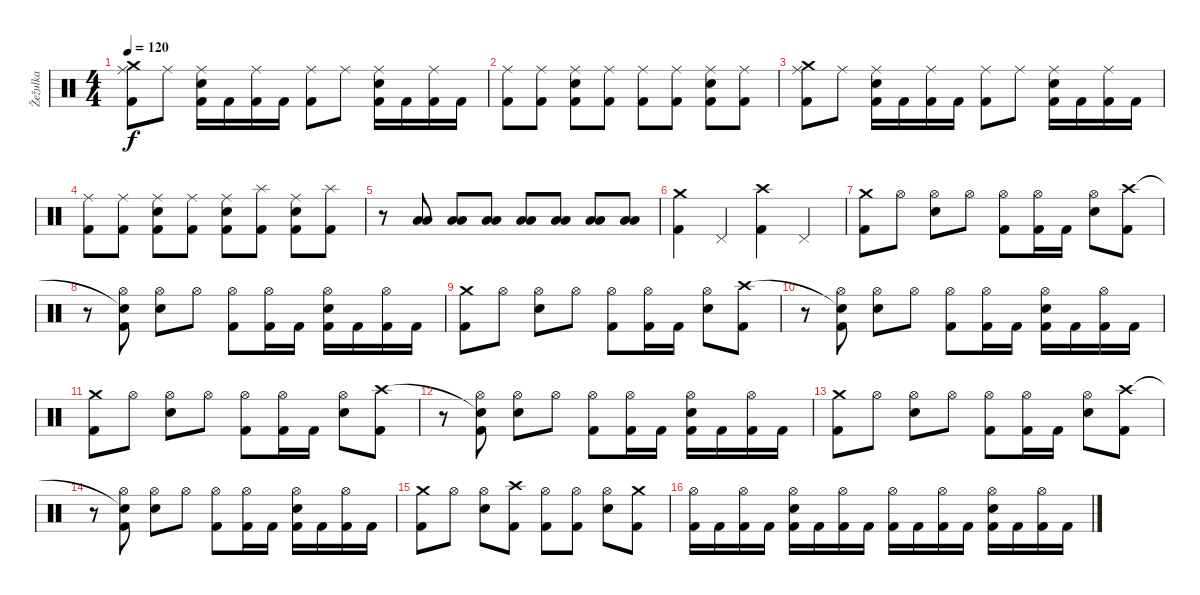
\track ("Žežulka" "Žežulka") {instrument percussion}
\staff {score}
\articulation defaults
\ts (4 4)
\tempo 120
\clef neutral
\ks c
("Crash medium (hit)" "Ride (middle)" "Kick (hit) 2").8{dy f} "Ride (middle)".8 ("Ride (middle)" "Snare (hit) 2" "Kick (hit) 2").16 "Kick (hit) 2".16 ("Ride (middle)" "Kick (hit) 2").16 "Kick (hit) 2".16 ("Ride (middle)" "Kick (hit) 2").8 "Ride (middle)".8 ("Ride (middle)" "Snare (hit) 2" "Kick (hit) 2").16 "Kick (hit) 2".16 ("Ride (middle)" "Kick (hit) 2").16 "Kick (hit) 2".16 |
("Ride (middle)" "Kick (hit) 2").8 ("Ride (middle)" "Kick (hit) 2").8 ("Ride (middle)" "Snare (hit) 2" "Kick (hit) 2").8 ("Ride (middle)" "Kick (hit) 2").8 ("Ride (middle)" "Kick (hit) 2").8 ("Ride (middle)" "Kick (hit) 2").8 ("Ride (middle)" "Snare (hit) 2" "Kick (hit) 2").8 ("Ride (middle)" "Kick (hit) 2").8 |
("Crash medium (hit)" "Ride (middle)" "Kick (hit) 2").8 "Ride (middle)".8 ("Ride (middle)" "Snare (hit) 2" "Kick (hit) 2").16 "Kick (hit) 2".16 ("Ride (middle)" "Kick (hit) 2").16 "Kick (hit) 2".16 ("Ride (middle)" "Kick (hit) 2").8 "Ride (middle)".8 ("Ride (middle)" "Snare (hit) 2" "Kick (hit) 2").16 "Kick (hit) 2".16 ("Ride (middle)" "Kick (hit) 2").16 "Kick (hit) 2".16 |
("Ride (middle)" "Kick (hit) 2").8 ("Ride (middle)" "Kick (hit) 2").8 ("Ride (middle)" "Snare (hit) 2" "Kick (hit) 2").8 ("Ride (middle)" "Kick (hit) 2").8 ("Ride (middle)" "Snare (hit) 2" "Kick (hit) 2").8 ("Splash (hit)" "Kick (hit) 2").8 ("Ride (middle)" "Snare (hit) 2" "Kick (hit) 2").8 ("Splash (hit)" "Kick (hit) 2").8 |
r.8 ("Low Tom (hit)" "Low Floor Tom (hit)").8 ("Low Tom (hit)" "Low Floor Tom (hit)").8 ("Low Tom (hit)" "Low Floor Tom (hit)").8 ("Low Tom (hit)" "Low Floor Tom (hit)").8 ("Low Tom (hit)" "Low Floor Tom (hit)").8 ("Low Tom (hit)" "Low Floor Tom (hit)").8 ("Low Tom (hit)" "Low Floor Tom (hit)").8 |
("Crash medium (hit)" "Kick (hit) 2").4 "Pedal Hi-Hat (hit)".4 ("Crash high (hit)" "Kick (hit) 2").4 "Pedal Hi-Hat (hit)".4 |
("Crash medium (hit)" "Kick (hit) 2").8 "Hi-Hat (open)".8 ("Hi-Hat (open)" "Snare (hit) 2").8 "Hi-Hat (open)".8 ("Hi-Hat (open)" "Kick (hit) 2").8 ("Hi-Hat (open)" "Kick (hit) 2").16 "Kick (hit) 2".16 ("Hi-Hat (open)" "Snare (hit) 2").8 ("Crash high (hit)" "Kick (hit) 2").8 |
r.8 ("Snare (hit)"{t} "Hi-Hat (open)" "Kick (hit) 2").8 ("Hi-Hat (open)" "Snare (hit) 2").8 "Hi-Hat (open)".8 ("Hi-Hat (open)" "Kick (hit) 2").8 ("Hi-Hat (open)" "Kick (hit) 2").16 "Kick (hit) 2".16 ("Hi-Hat (open)" "Snare (hit) 2" "Kick (hit) 2").16 "Kick (hit) 2".16 ("Hi-Hat (open)" "Kick (hit) 2").16 "Kick (hit) 2".16 |
("Crash medium (hit)" "Kick (hit) 2").8 "Hi-Hat (open)".8 ("Hi-Hat (open)" "Snare (hit) 2").8 "Hi-Hat (open)".8 ("Hi-Hat (open)" "Kick (hit) 2").8 ("Hi-Hat (open)" "Kick (hit) 2").16 "Kick (hit) 2".16 ("Hi-Hat (open)" "Snare (hit) 2").8 ("Crash high (hit)" "Kick (hit) 2").8 |
r.8 ("Snare (hit)"{t} "Hi-Hat (open)" "Kick (hit) 2").8 ("Hi-Hat (open)" "Snare (hit) 2").8 "Hi-Hat (open)".8 ("Hi-Hat (open)" "Kick (hit) 2").8 ("Hi-Hat (open)" "Kick (hit) 2").16 "Kick (hit) 2".16 ("Hi-Hat (open)" "Snare (hit) 2" "Kick (hit) 2").16 "Kick (hit) 2".16 ("Hi-Hat (open)" "Kick (hit) 2").16 "Kick (hit) 2".16 |
("Crash medium (hit)" "Kick (hit) 2").8 "Hi-Hat (open)".8 ("Hi-Hat (open)" "Snare (hit) 2").8 "Hi-Hat (open)".8 ("Hi-Hat (open)" "Kick (hit) 2").8 ("Hi-Hat (open)" "Kick (hit) 2").16 "Kick (hit) 2".16 ("Hi-Hat (open)" "Snare (hit) 2").8 ("Crash high (hit)" "Kick (hit) 2").8 |
r.8 ("Snare (hit)"{t} "Hi-Hat (open)" "Kick (hit) 2").8 ("Hi-Hat (open)" "Snare (hit) 2").8 "Hi-Hat (open)".8 ("Hi-Hat (open)" "Kick (hit) 2").8 ("Hi-Hat (open)" "Kick (hit) 2").16 "Kick (hit) 2".16 ("Hi-Hat (open)" "Snare (hit) 2" "Kick (hit) 2").16 "Kick (hit) 2".16 ("Hi-Hat (open)" "Kick (hit) 2").16 "Kick (hit) 2".16 |
("Crash medium (hit)" "Kick (hit) 2").8 "Hi-Hat (open)".8 ("Hi-Hat (open)" "Snare (hit) 2").8 "Hi-Hat (open)".8 ("Hi-Hat (open)" "Kick (hit) 2").8 ("Hi-Hat (open)" "Kick (hit) 2").16 "Kick (hit) 2".16 ("Hi-Hat (open)" "Snare (hit) 2").8 ("Crash high (hit)" "Kick (hit) 2").8 |
r.8 ("Snare (hit)"{t} "Hi-Hat (open)" "Kick (hit) 2").8 ("Hi-Hat (open)" "Snare (hit) 2").8 "Hi-Hat (open)".8 ("Hi-Hat (open)" "Kick (hit) 2").8 ("Hi-Hat (open)" "Kick (hit) 2").16 "Kick (hit) 2".16 ("Hi-Hat (open)" "Snare (hit) 2" "Kick (hit) 2").16 "Kick (hit) 2".16 ("Hi-Hat (open)" "Kick (hit) 2").16 "Kick (hit) 2".16 |
("Crash medium (hit)" "Kick (hit) 2").8 "Hi-Hat (open)".8 ("Hi-Hat (open)" "Snare (hit) 2").8 ("Crash high (hit)" "Kick (hit) 2").8 ("Hi-Hat (open)" "Kick (hit) 2").8 ("Hi-Hat (open)" "Kick (hit) 2").8 ("Hi-Hat (open)" "Snare (hit) 2").8 ("Crash medium (hit)" "Kick (hit) 2").8 |
("Hi-Hat (open)" "Kick (hit) 2").16 "Kick (hit) 2".16 ("Hi-Hat (open)" "Kick (hit) 2").16 "Kick (hit) 2".16 ("Hi-Hat (open)" "Snare (hit) 2" "Kick (hit) 2").16 "Kick (hit) 2".16 ("Hi-Hat (open)" "Kick (hit) 2").16 "Kick (hit) 2".16 ("Hi-Hat (open)" "Kick (hit) 2").16 "Kick (hit) 2".16 ("Hi-Hat (open)" "Kick (hit) 2").16 "Kick (hit) 2".16 ("Hi-Hat (open)" "Snare (hit) 2" "Kick (hit) 2").16 "Kick (hit) 2".16 ("Hi-Hat (open)" "Kick (hit) 2").16 "Kick (hit) 2".16
